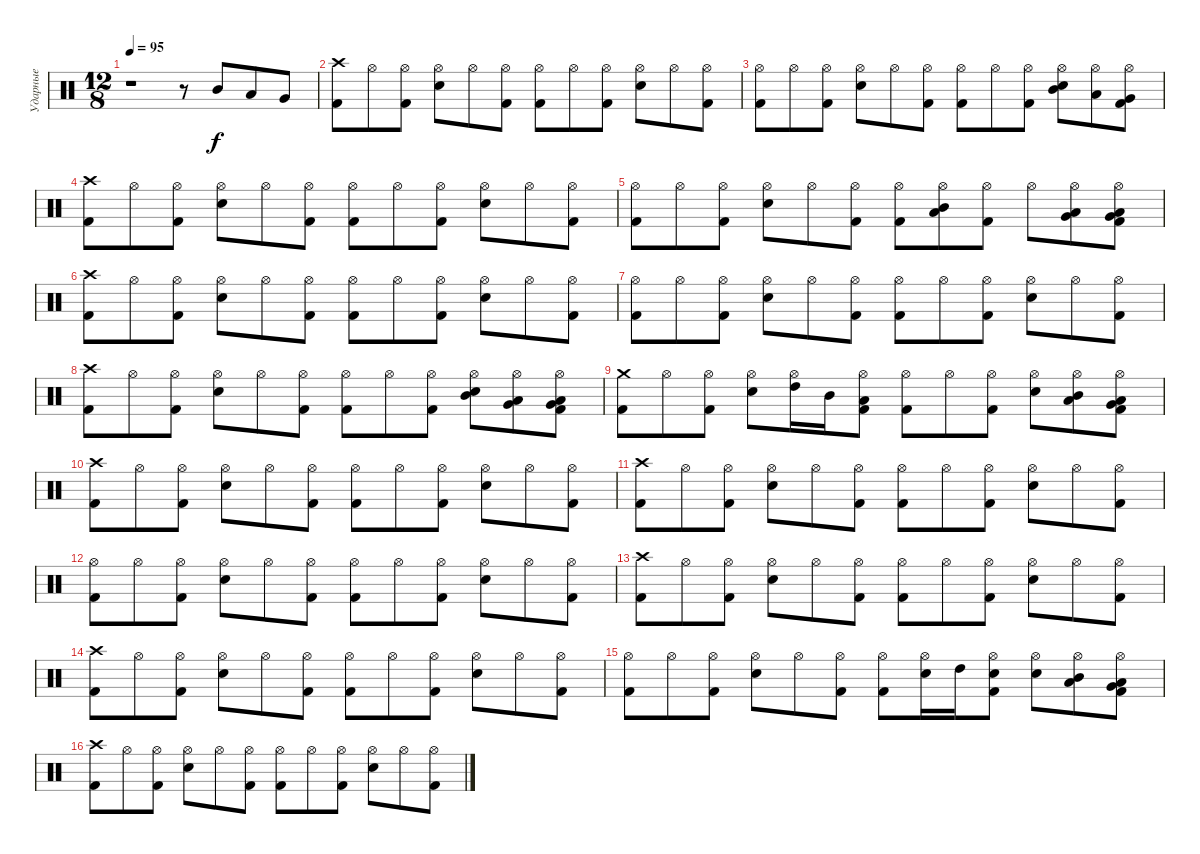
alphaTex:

\track ("Ударные" "Ударные") {instrument percussion}
\staff {score}
\articulation defaults
\ts (12 8)
\tempo 95
\clef neutral
\ks c
r.1{dy f} r.8 "Mid Tom (hit)".8 "Low Tom (hit)".8 "Very Low Tom (hit)".8 |
("Crash high (hit)" "Kick (hit) 2").8 "Hi-Hat (open)".8 ("Hi-Hat (open)" "Kick (hit) 2").8 ("Hi-Hat (open)" "Electric Snare (hit)").8 "Hi-Hat (open)".8 ("Hi-Hat (open)" "Kick (hit) 2").8 ("Hi-Hat (open)" "Kick (hit) 2").8 "Hi-Hat (open)".8 ("Hi-Hat (open)" "Kick (hit) 2").8 ("Hi-Hat (open)" "Electric Snare (hit)").8 "Hi-Hat (open)".8 ("Hi-Hat (open)" "Kick (hit) 2").8 |
("Hi-Hat (open)" "Kick (hit) 2").8 "Hi-Hat (open)".8 ("Hi-Hat (open)" "Kick (hit) 2").8 ("Hi-Hat (open)" "Electric Snare (hit)").8 "Hi-Hat (open)".8 ("Hi-Hat (open)" "Kick (hit) 2").8 ("Hi-Hat (open)" "Kick (hit) 2").8 "Hi-Hat (open)".8 ("Hi-Hat (open)" "Kick (hit) 2").8 ("Hi-Hat (open)" "Mid Tom (hit)" "Electric Snare (hit)").8 ("Hi-Hat (open)" "Low Tom (hit)").8 ("Hi-Hat (open)" "Very Low Tom (hit)" "Kick (hit) 2").8 |
("Crash high (hit)" "Kick (hit) 2").8 "Hi-Hat (open)".8 ("Hi-Hat (open)" "Kick (hit) 2").8 ("Hi-Hat (open)" "Electric Snare (hit)").8 "Hi-Hat (open)".8 ("Hi-Hat (open)" "Kick (hit) 2").8 ("Hi-Hat (open)" "Kick (hit) 2").8 "Hi-Hat (open)".8 ("Hi-Hat (open)" "Kick (hit) 2").8 ("Hi-Hat (open)" "Electric Snare (hit)").8 "Hi-Hat (open)".8 ("Hi-Hat (open)" "Kick (hit) 2").8 |
("Hi-Hat (open)" "Kick (hit) 2").8 "Hi-Hat (open)".8 ("Hi-Hat (open)" "Kick (hit) 2").8 ("Hi-Hat (open)" "Electric Snare (hit)").8 "Hi-Hat (open)".8 ("Hi-Hat (open)" "Kick (hit) 2").8 ("Hi-Hat (open)" "Kick (hit) 2").8 ("Hi-Hat (open)" "Mid Tom (hit)" "Low Tom (hit)").8 ("Hi-Hat (open)" "Kick (hit) 2").8 "Hi-Hat (open)".8 ("Hi-Hat (open)" "Low Tom (hit)" "Very Low Tom (hit)").8 ("Hi-Hat (open)" "Very Low Tom (hit)" "Low Floor Tom (hit)" "Kick (hit) 2").8 |
("Crash high (hit)" "Kick (hit) 2").8 "Hi-Hat (open)".8 ("Hi-Hat (open)" "Kick (hit) 2").8 ("Hi-Hat (open)" "Electric Snare (hit)").8 "Hi-Hat (open)".8 ("Hi-Hat (open)" "Kick (hit) 2").8 ("Hi-Hat (open)" "Kick (hit) 2").8 "Hi-Hat (open)".8 ("Hi-Hat (open)" "Kick (hit) 2").8 ("Hi-Hat (open)" "Electric Snare (hit)").8 "Hi-Hat (open)".8 ("Hi-Hat (open)" "Kick (hit) 2").8 |
("Hi-Hat (open)" "Kick (hit) 2").8 "Hi-Hat (open)".8 ("Hi-Hat (open)" "Kick (hit) 2").8 ("Hi-Hat (open)" "Electric Snare (hit)").8 "Hi-Hat (open)".8 ("Hi-Hat (open)" "Kick (hit) 2").8 ("Hi-Hat (open)" "Kick (hit) 2").8 "Hi-Hat (open)".8 ("Hi-Hat (open)" "Kick (hit) 2").8 ("Hi-Hat (open)" "Electric Snare (hit)").8 "Hi-Hat (open)".8 ("Hi-Hat (open)" "Kick (hit) 2").8 |
("Crash high (hit)" "Kick (hit) 2").8 "Hi-Hat (open)".8 ("Hi-Hat (open)" "Kick (hit) 2").8 ("Hi-Hat (open)" "Electric Snare (hit)").8 "Hi-Hat (open)".8 ("Hi-Hat (open)" "Kick (hit) 2").8 ("Hi-Hat (open)" "Kick (hit) 2").8 "Hi-Hat (open)".8 ("Hi-Hat (open)" "Kick (hit) 2").8 ("Hi-Hat (open)" "Mid Tom (hit)" "Electric Snare (hit)").8 ("Hi-Hat (open)" "Low Tom (hit)" "Very Low Tom (hit)").8 ("Hi-Hat (open)" "Very Low Tom (hit)" "Low Floor Tom (hit)" "Kick (hit) 2").8 |
("Crash medium (hit)" "Kick (hit) 2").8 "Hi-Hat (open)".8 ("Hi-Hat (open)" "Kick (hit) 2").8 ("Hi-Hat (open)" "Electric Snare (hit)").8 ("Hi-Hat (open)" "High Tom (hit)").16 "Mid Tom (hit)".16 ("Hi-Hat (open)" "Low Tom (hit)" "Kick (hit) 2").8 ("Hi-Hat (open)" "Kick (hit) 2").8 "Hi-Hat (open)".8 ("Hi-Hat (open)" "Kick (hit) 2").8 ("Hi-Hat (open)" "Electric Snare (hit)").8 ("Hi-Hat (open)" "Mid Tom (hit)" "Low Tom (hit)").8 ("Hi-Hat (open)" "Low Tom (hit)" "Very Low Tom (hit)" "Kick (hit) 2").8 |
("Crash high (hit)" "Kick (hit) 2").8 "Hi-Hat (open)".8 ("Hi-Hat (open)" "Kick (hit) 2").8 ("Hi-Hat (open)" "Electric Snare (hit)").8 "Hi-Hat (open)".8 ("Hi-Hat (open)" "Kick (hit) 2").8 ("Hi-Hat (open)" "Kick (hit) 2").8 "Hi-Hat (open)".8 ("Hi-Hat (open)" "Kick (hit) 2").8 ("Hi-Hat (open)" "Electric Snare (hit)").8 "Hi-Hat (open)".8 ("Hi-Hat (open)" "Kick (hit) 2").8 |
("Crash high (hit)" "Kick (hit) 2").8 "Hi-Hat (open)".8 ("Hi-Hat (open)" "Kick (hit) 2").8 ("Hi-Hat (open)" "Electric Snare (hit)").8 "Hi-Hat (open)".8 ("Hi-Hat (open)" "Kick (hit) 2").8 ("Hi-Hat (open)" "Kick (hit) 2").8 "Hi-Hat (open)".8 ("Hi-Hat (open)" "Kick (hit) 2").8 ("Hi-Hat (open)" "Electric Snare (hit)").8 "Hi-Hat (open)".8 ("Hi-Hat (open)" "Kick (hit) 2").8 |
("Hi-Hat (open)" "Kick (hit) 2").8 "Hi-Hat (open)".8 ("Hi-Hat (open)" "Kick (hit) 2").8 ("Hi-Hat (open)" "Electric Snare (hit)").8 "Hi-Hat (open)".8 ("Hi-Hat (open)" "Kick (hit) 2").8 ("Hi-Hat (open)" "Kick (hit) 2").8 "Hi-Hat (open)".8 ("Hi-Hat (open)" "Kick (hit) 2").8 ("Hi-Hat (open)" "Electric Snare (hit)").8 "Hi-Hat (open)".8 ("Hi-Hat (open)" "Kick (hit) 2").8 |
("Crash high (hit)" "Kick (hit) 2").8 "Hi-Hat (open)".8 ("Hi-Hat (open)" "Kick (hit) 2").8 ("Hi-Hat (open)" "Electric Snare (hit)").8 "Hi-Hat (open)".8 ("Hi-Hat (open)" "Kick (hit) 2").8 ("Hi-Hat (open)" "Kick (hit) 2").8 "Hi-Hat (open)".8 ("Hi-Hat (open)" "Kick (hit) 2").8 ("Hi-Hat (open)" "Electric Snare (hit)").8 "Hi-Hat (open)".8 ("Hi-Hat (open)" "Kick (hit) 2").8 |
("Crash high (hit)" "Kick (hit) 2").8 "Hi-Hat (open)".8 ("Hi-Hat (open)" "Kick (hit) 2").8 ("Hi-Hat (open)" "Electric Snare (hit)").8 "Hi-Hat (open)".8 ("Hi-Hat (open)" "Kick (hit) 2").8 ("Hi-Hat (open)" "Kick (hit) 2").8 "Hi-Hat (open)".8 ("Hi-Hat (open)" "Kick (hit) 2").8 ("Hi-Hat (open)" "Electric Snare (hit)").8 "Hi-Hat (open)".8 ("Hi-Hat (open)" "Kick (hit) 2").8 |
("Hi-Hat (open)" "Kick (hit) 2").8 "Hi-Hat (open)".8 ("Hi-Hat (open)" "Kick (hit) 2").8 ("Hi-Hat (open)" "Electric Snare (hit)").8 "Hi-Hat (open)".8 ("Hi-Hat (open)" "Kick (hit) 2").8 ("Hi-Hat (open)" "Kick (hit) 2").8 ("Hi-Hat (open)" "Electric Snare (hit)").16 "High Tom (hit)".16 ("Hi-Hat (open)" "Electric Snare (hit)" "Kick (hit) 2").8 ("Hi-Hat (open)" "Electric Snare (hit)").8 ("Hi-Hat (open)" "Mid Tom (hit)" "Low Tom (hit)").8 ("Hi-Hat (open)" "Low Tom (hit)" "Very Low Tom (hit)" "Kick (hit) 2").8 |
("Crash high (hit)" "Kick (hit) 2").8 "Hi-Hat (open)".8 ("Hi-Hat (open)" "Kick (hit) 2").8 ("Hi-Hat (open)" "Electric Snare (hit)").8 "Hi-Hat (open)".8 ("Hi-Hat (open)" "Kick (hit) 2").8 ("Hi-Hat (open)" "Kick (hit) 2").8 "Hi-Hat (open)".8 ("Hi-Hat (open)" "Kick (hit) 2").8 ("Hi-Hat (open)" "Electric Snare (hit)").8 "Hi-Hat (open)".8 ("Hi-Hat (open)" "Kick (hit) 2").8
